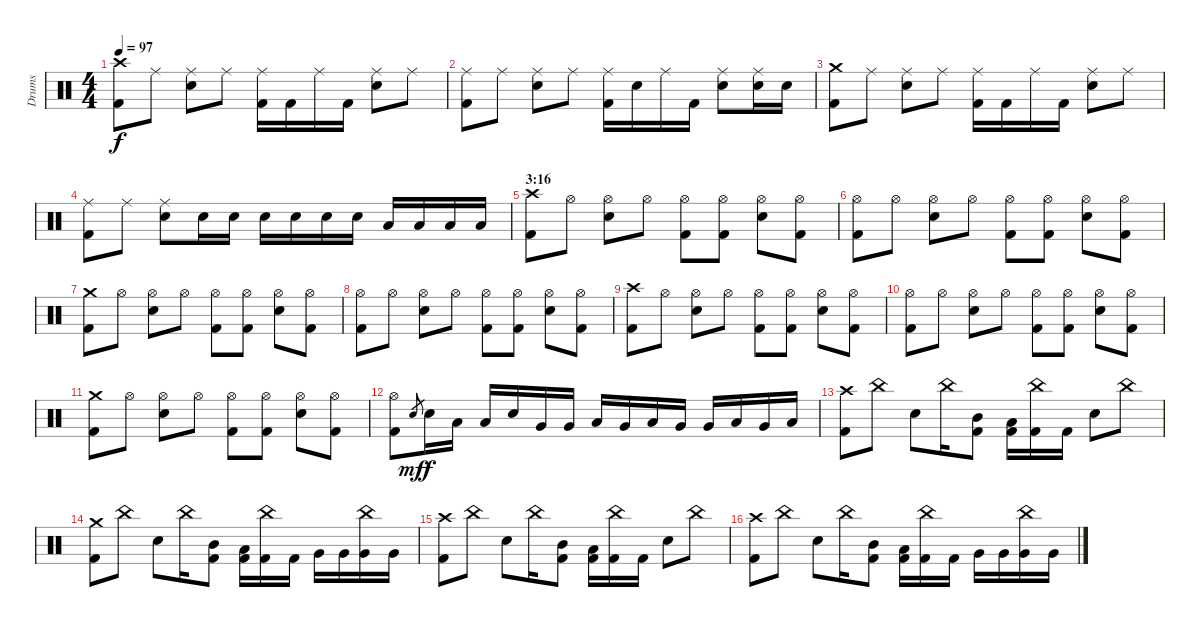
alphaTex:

\track ("Drums" "Drums") {instrument percussion}
\staff {score}
\articulation defaults
\ts (4 4)
\tempo 97
\clef neutral
\ks c
("Crash high (hit)" "Kick (hit) 2").8{dy f} "Ride (middle)".8 ("Ride (middle)" "Snare (hit) 2").8 "Ride (middle)".8 ("Ride (middle)" "Kick (hit) 2").16 "Kick (hit) 2".16 "Ride (middle)".16 "Kick (hit) 2".16 ("Ride (middle)" "Snare (hit) 2").8 "Ride (middle)".8 |
("Ride (middle)" "Kick (hit) 2").8 "Ride (middle)".8 ("Ride (middle)" "Snare (hit) 2").8 "Ride (middle)".8 ("Ride (middle)" "Kick (hit) 2").16 "Snare (hit) 2".16 "Ride (middle)".16 "Kick (hit) 2".16 ("Ride (middle)" "Snare (hit) 2").8 ("Ride (middle)" "Snare (hit) 2").16 "Snare (hit) 2".16 |
("Crash medium (hit)" "Kick (hit) 2").8 "Ride (middle)".8 ("Ride (middle)" "Snare (hit) 2").8 "Ride (middle)".8 ("Ride (middle)" "Kick (hit) 2").16 "Kick (hit) 2".16 "Ride (middle)".16 "Kick (hit) 2".16 ("Ride (middle)" "Snare (hit) 2").8 "Ride (middle)".8 |
("Ride (middle)" "Kick (hit) 2").8 "Ride (middle)".8 ("Ride (middle)" "Snare (hit) 2").8 "Snare (hit) 2".16 "Snare (hit) 2".16 "Snare (hit) 2".16 "Snare (hit) 2".16 "Snare (hit) 2".16 "Snare (hit) 2".16 "Low Tom (hit)".16 "Low Tom (hit)".16 "Low Tom (hit)".16 "Low Tom (hit)".16 |
\section ("" "3:16")
("Crash high (hit)" "Kick (hit) 2").8 "Hi-Hat (open)".8 ("Hi-Hat (open)" "Snare (hit) 2").8 "Hi-Hat (open)".8 ("Hi-Hat (open)" "Kick (hit) 2").8 ("Hi-Hat (open)" "Kick (hit) 2").8 ("Hi-Hat (open)" "Snare (hit) 2").8 ("Hi-Hat (open)" "Kick (hit) 2").8 |
("Hi-Hat (open)" "Kick (hit) 2").8 "Hi-Hat (open)".8 ("Hi-Hat (open)" "Snare (hit) 2").8 "Hi-Hat (open)".8 ("Hi-Hat (open)" "Kick (hit) 2").8 ("Hi-Hat (open)" "Kick (hit) 2").8 ("Hi-Hat (open)" "Snare (hit) 2").8 ("Hi-Hat (open)" "Kick (hit) 2").8 |
("Crash medium (hit)" "Kick (hit) 2").8 "Hi-Hat (open)".8 ("Hi-Hat (open)" "Snare (hit) 2").8 "Hi-Hat (open)".8 ("Hi-Hat (open)" "Kick (hit) 2").8 ("Hi-Hat (open)" "Kick (hit) 2").8 ("Hi-Hat (open)" "Snare (hit) 2").8 ("Hi-Hat (open)" "Kick (hit) 2").8 |
("Hi-Hat (open)" "Kick (hit) 2").8 "Hi-Hat (open)".8 ("Hi-Hat (open)" "Snare (hit) 2").8 "Hi-Hat (open)".8 ("Hi-Hat (open)" "Kick (hit) 2").8 ("Hi-Hat (open)" "Kick (hit) 2").8 ("Hi-Hat (open)" "Snare (hit) 2").8 ("Hi-Hat (open)" "Kick (hit) 2").8 |
("Crash high (hit)" "Kick (hit) 2").8 "Hi-Hat (open)".8 ("Hi-Hat (open)" "Snare (hit) 2").8 "Hi-Hat (open)".8 ("Hi-Hat (open)" "Kick (hit) 2").8 ("Hi-Hat (open)" "Kick (hit) 2").8 ("Hi-Hat (open)" "Snare (hit) 2").8 ("Hi-Hat (open)" "Kick (hit) 2").8 |
("Hi-Hat (open)" "Kick (hit) 2").8 "Hi-Hat (open)".8 ("Hi-Hat (open)" "Snare (hit) 2").8 "Hi-Hat (open)".8 ("Hi-Hat (open)" "Kick (hit) 2").8 ("Hi-Hat (open)" "Kick (hit) 2").8 ("Hi-Hat (open)" "Snare (hit) 2").8 ("Hi-Hat (open)" "Kick (hit) 2").8 |
("Crash medium (hit)" "Kick (hit) 2").8 "Hi-Hat (open)".8 ("Hi-Hat (open)" "Snare (hit) 2").8 "Hi-Hat (open)".8 ("Hi-Hat (open)" "Kick (hit) 2").8 ("Hi-Hat (open)" "Kick (hit) 2").8 ("Hi-Hat (open)" "Snare (hit) 2").8 ("Hi-Hat (open)" "Kick (hit) 2").8 |
("Hi-Hat (open)" "Kick (hit) 2").8 "Snare (hit) 2".8{gr dy mf} "Snare (hit) 2".16{dy f} "Low Tom (hit)".16 "Low Tom (hit)".16 "Snare (hit) 2".16 "Very Low Tom (hit)".16 "Very Low Tom (hit)".16 "Low Tom (hit)".16 "Very Low Tom (hit)".16 "Low Tom (hit)".16 "Very Low Tom (hit)".16 "Very Low Tom (hit)".16 "Low Floor Tom (hit)".16 "Very Low Tom (hit)".16 "Low Floor Tom (hit)".16 |
("Crash high (hit)" "Kick (hit) 2").8 "China (hit)".8 "Snare (hit) 2".8 "China (hit)".16 ("Mid Tom (hit)" "Kick (hit) 2").8 ("Low Tom (hit)" "Kick (hit) 2").16 ("China (hit)" "Kick (hit) 2").16 "Kick (hit) 2".16 "Snare (hit) 2".8 "China (hit)".8 |
("Crash medium (hit)" "Kick (hit) 2").8 "China (hit)".8 "Snare (hit) 2".8 "China (hit)".16 ("Mid Tom (hit)" "Kick (hit) 2").8 ("Low Tom (hit)" "Kick (hit) 2").16 ("China (hit)" "Kick (hit) 2").16 "Kick (hit) 2".16 "Very Low Tom (hit)".16 "Very Low Tom (hit)".16 ("China (hit)" "Very Low Tom (hit)").16 "Very Low Tom (hit)".16 |
("Crash high (hit)" "Kick (hit) 2").8 "China (hit)".8 "Snare (hit) 2".8 "China (hit)".16 ("Mid Tom (hit)" "Kick (hit) 2").8 ("Low Tom (hit)" "Kick (hit) 2").16 ("China (hit)" "Kick (hit) 2").16 "Kick (hit) 2".16 "Snare (hit) 2".8 "China (hit)".8 |
("Crash high (hit)" "Kick (hit) 2").8 "China (hit)".8 "Snare (hit) 2".8 "China (hit)".16 ("Mid Tom (hit)" "Kick (hit) 2").8 ("Low Tom (hit)" "Kick (hit) 2").16 ("China (hit)" "Kick (hit) 2").16 "Kick (hit) 2".16 "Very Low Tom (hit)".16 "Very Low Tom (hit)".16 ("China (hit)" "Very Low Tom (hit)").16 "Very Low Tom (hit)".16
